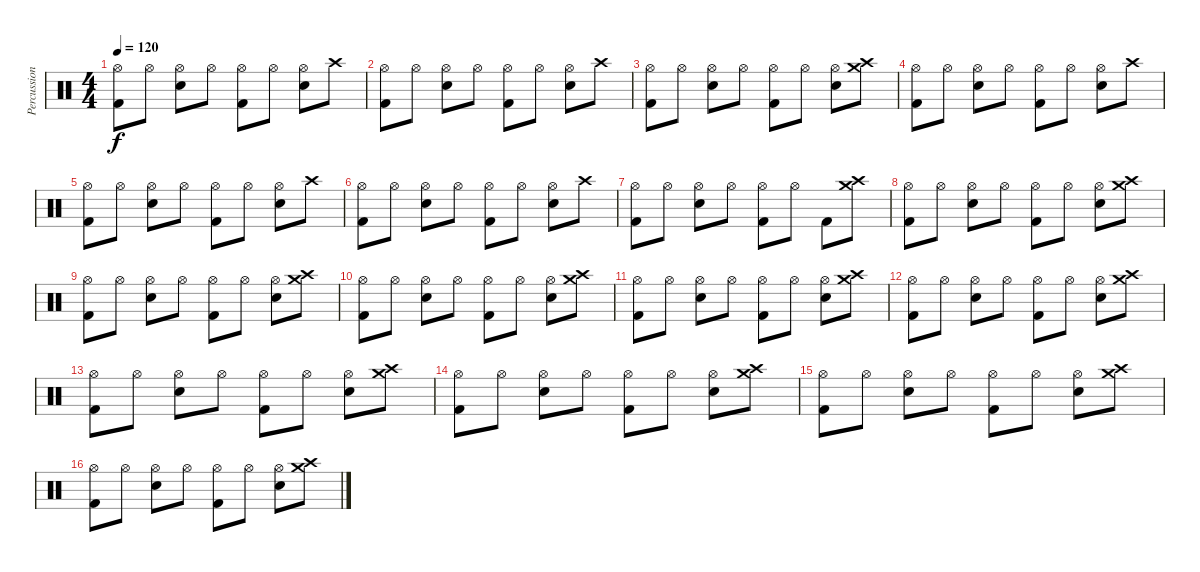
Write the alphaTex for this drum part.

\track ("Percussion" "Percussion") {instrument percussion}
\staff {score}
\articulation defaults
\ts (4 4)
\tempo 120
\clef neutral
\ks c
("Hi-Hat (open)" "Kick (hit) 2").8{dy f} "Hi-Hat (open)".8 ("Hi-Hat (open)" "Electric Snare (hit)").8 "Hi-Hat (open)".8 ("Hi-Hat (open)" "Kick (hit) 2").8 "Hi-Hat (open)".8 ("Hi-Hat (open)" "Electric Snare (hit)").8 "Crash high (hit)".8 |
("Hi-Hat (open)" "Kick (hit) 2").8 "Hi-Hat (open)".8 ("Hi-Hat (open)" "Electric Snare (hit)").8 "Hi-Hat (open)".8 ("Hi-Hat (open)" "Kick (hit) 2").8 "Hi-Hat (open)".8 ("Hi-Hat (open)" "Electric Snare (hit)").8 "Crash high (hit)".8 |
("Hi-Hat (open)" "Kick (hit) 2").8 "Hi-Hat (open)".8 ("Hi-Hat (open)" "Electric Snare (hit)").8 "Hi-Hat (open)".8 ("Hi-Hat (open)" "Kick (hit) 2").8 "Hi-Hat (open)".8 ("Hi-Hat (open)" "Electric Snare (hit)").8 ("Crash high (hit)" "Crash medium (hit)").8 |
("Hi-Hat (open)" "Kick (hit) 2").8 "Hi-Hat (open)".8 ("Hi-Hat (open)" "Electric Snare (hit)").8 "Hi-Hat (open)".8 ("Hi-Hat (open)" "Kick (hit) 2").8 "Hi-Hat (open)".8 ("Hi-Hat (open)" "Electric Snare (hit)").8 "Crash high (hit)".8 |
("Hi-Hat (open)" "Kick (hit) 2").8 "Hi-Hat (open)".8 ("Hi-Hat (open)" "Electric Snare (hit)").8 "Hi-Hat (open)".8 ("Hi-Hat (open)" "Kick (hit) 2").8 "Hi-Hat (open)".8 ("Hi-Hat (open)" "Electric Snare (hit)").8 "Crash high (hit)".8 |
("Hi-Hat (open)" "Kick (hit) 2").8 "Hi-Hat (open)".8 ("Hi-Hat (open)" "Electric Snare (hit)").8 "Hi-Hat (open)".8 ("Hi-Hat (open)" "Kick (hit) 2").8 "Hi-Hat (open)".8 ("Hi-Hat (open)" "Electric Snare (hit)").8 "Crash high (hit)".8 |
("Hi-Hat (open)" "Kick (hit) 2").8 "Hi-Hat (open)".8 ("Hi-Hat (open)" "Electric Snare (hit)").8 "Hi-Hat (open)".8 ("Hi-Hat (open)" "Kick (hit) 2").8 "Hi-Hat (open)".8 "Kick (hit) 2".8 ("Crash high (hit)" "Crash medium (hit)").8 |
("Hi-Hat (open)" "Kick (hit) 2").8 "Hi-Hat (open)".8 ("Hi-Hat (open)" "Electric Snare (hit)").8 "Hi-Hat (open)".8 ("Hi-Hat (open)" "Kick (hit) 2").8 "Hi-Hat (open)".8 ("Hi-Hat (open)" "Electric Snare (hit)").8 ("Crash high (hit)" "Crash medium (hit)").8 |
("Hi-Hat (open)" "Kick (hit) 2").8 "Hi-Hat (open)".8 ("Hi-Hat (open)" "Electric Snare (hit)").8 "Hi-Hat (open)".8 ("Hi-Hat (open)" "Kick (hit) 2").8 "Hi-Hat (open)".8 ("Hi-Hat (open)" "Electric Snare (hit)").8 ("Crash high (hit)" "Crash medium (hit)").8 |
("Hi-Hat (open)" "Kick (hit) 2").8 "Hi-Hat (open)".8 ("Hi-Hat (open)" "Electric Snare (hit)").8 "Hi-Hat (open)".8 ("Hi-Hat (open)" "Kick (hit) 2").8 "Hi-Hat (open)".8 ("Hi-Hat (open)" "Electric Snare (hit)").8 ("Crash high (hit)" "Crash medium (hit)").8 |
("Hi-Hat (open)" "Kick (hit) 2").8 "Hi-Hat (open)".8 ("Hi-Hat (open)" "Electric Snare (hit)").8 "Hi-Hat (open)".8 ("Hi-Hat (open)" "Kick (hit) 2").8 "Hi-Hat (open)".8 ("Hi-Hat (open)" "Electric Snare (hit)").8 ("Crash high (hit)" "Crash medium (hit)").8 |
("Hi-Hat (open)" "Kick (hit) 2").8 "Hi-Hat (open)".8 ("Hi-Hat (open)" "Electric Snare (hit)").8 "Hi-Hat (open)".8 ("Hi-Hat (open)" "Kick (hit) 2").8 "Hi-Hat (open)".8 ("Hi-Hat (open)" "Electric Snare (hit)").8 ("Crash high (hit)" "Crash medium (hit)").8 |
("Hi-Hat (open)" "Kick (hit) 2").8 "Hi-Hat (open)".8 ("Hi-Hat (open)" "Electric Snare (hit)").8 "Hi-Hat (open)".8 ("Hi-Hat (open)" "Kick (hit) 2").8 "Hi-Hat (open)".8 ("Hi-Hat (open)" "Electric Snare (hit)").8 ("Crash high (hit)" "Crash medium (hit)").8 |
("Hi-Hat (open)" "Kick (hit) 2").8 "Hi-Hat (open)".8 ("Hi-Hat (open)" "Electric Snare (hit)").8 "Hi-Hat (open)".8 ("Hi-Hat (open)" "Kick (hit) 2").8 "Hi-Hat (open)".8 ("Hi-Hat (open)" "Electric Snare (hit)").8 ("Crash high (hit)" "Crash medium (hit)").8 |
("Hi-Hat (open)" "Kick (hit) 2").8 "Hi-Hat (open)".8 ("Hi-Hat (open)" "Electric Snare (hit)").8 "Hi-Hat (open)".8 ("Hi-Hat (open)" "Kick (hit) 2").8 "Hi-Hat (open)".8 ("Hi-Hat (open)" "Electric Snare (hit)").8 ("Crash high (hit)" "Crash medium (hit)").8 |
("Hi-Hat (open)" "Kick (hit) 2").8 "Hi-Hat (open)".8 ("Hi-Hat (open)" "Electric Snare (hit)").8 "Hi-Hat (open)".8 ("Hi-Hat (open)" "Kick (hit) 2").8 "Hi-Hat (open)".8 ("Hi-Hat (open)" "Electric Snare (hit)").8 ("Crash high (hit)" "Crash medium (hit)").8
